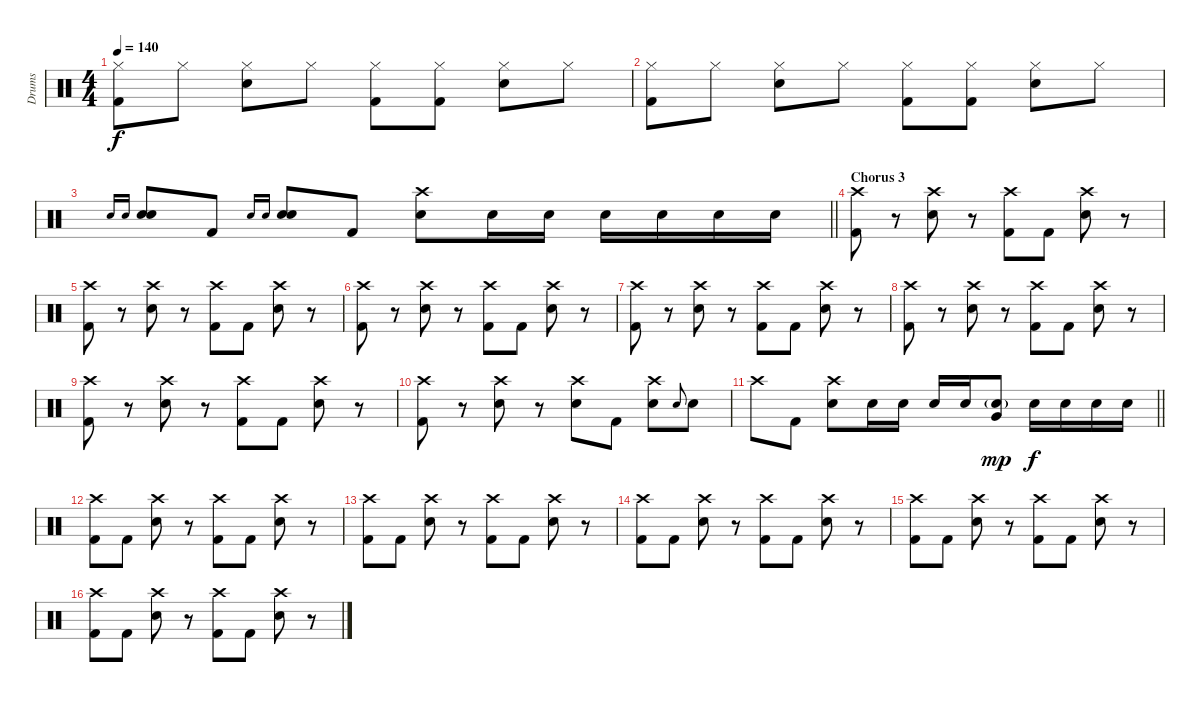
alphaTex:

\track ("Drums" "Drums") {instrument percussion}
\staff {score}
\articulation defaults
\ts (4 4)
\tempo 140
\clef neutral
\ks c
("Hi-Hat (closed)" "Kick (hit) 2").8{dy f} "Hi-Hat (closed)".8 ("Hi-Hat (closed)" "Electric Snare (hit)").8 "Hi-Hat (closed)".8 ("Hi-Hat (closed)" "Kick (hit) 2").8 ("Hi-Hat (closed)" "Kick (hit) 2").8 ("Hi-Hat (closed)" "Electric Snare (hit)").8 "Hi-Hat (closed)".8 |
("Hi-Hat (closed)" "Kick (hit) 2").8 "Hi-Hat (closed)".8 ("Hi-Hat (closed)" "Electric Snare (hit)").8 "Hi-Hat (closed)".8 ("Hi-Hat (closed)" "Kick (hit) 2").8 ("Hi-Hat (closed)" "Kick (hit) 2").8 ("Hi-Hat (closed)" "Electric Snare (hit)").8 "Hi-Hat (closed)".8 |
\barLineRight lightlight "Electric Snare (hit)".16{gr onbeat} "Electric Snare (hit)".16{gr onbeat}
("Electric Snare (hit)" "Electric Snare (hit)").8 "Kick (hit) 2".8 "Electric Snare (hit)".16{gr onbeat} "Electric Snare (hit)".16{gr onbeat} ("Electric Snare (hit)" "Electric Snare (hit)").8 "Kick (hit) 2".8 ("Crash high (hit)" "Electric Snare (hit)").8 "Electric Snare (hit)".16 "Electric Snare (hit)".16 "Electric Snare (hit)".16 "Electric Snare (hit)".16 "Electric Snare (hit)".16 "Electric Snare (hit)".16 |
\section ("" "Chorus 3")
("Crash high (hit)" "Kick (hit) 2").8 r.8 ("Crash high (hit)" "Electric Snare (hit)").8 r.8 ("Crash high (hit)" "Kick (hit) 2").8 "Kick (hit) 2".8 ("Crash high (hit)" "Electric Snare (hit)").8 r.8 |
("Crash high (hit)" "Kick (hit) 2").8 r.8 ("Crash high (hit)" "Electric Snare (hit)").8 r.8 ("Crash high (hit)" "Kick (hit) 2").8 "Kick (hit) 2".8 ("Crash high (hit)" "Electric Snare (hit)").8 r.8 |
("Crash high (hit)" "Kick (hit) 2").8 r.8 ("Crash high (hit)" "Electric Snare (hit)").8 r.8 ("Crash high (hit)" "Kick (hit) 2").8 "Kick (hit) 2".8 ("Crash high (hit)" "Electric Snare (hit)").8 r.8 |
("Crash high (hit)" "Kick (hit) 2").8 r.8 ("Crash high (hit)" "Electric Snare (hit)").8 r.8 ("Crash high (hit)" "Kick (hit) 2").8 "Kick (hit) 2".8 ("Crash high (hit)" "Electric Snare (hit)").8 r.8 |
("Crash high (hit)" "Kick (hit) 2").8 r.8 ("Crash high (hit)" "Electric Snare (hit)").8 r.8 ("Crash high (hit)" "Kick (hit) 2").8 "Kick (hit) 2".8 ("Crash high (hit)" "Electric Snare (hit)").8 r.8 |
("Crash high (hit)" "Kick (hit) 2").8 r.8 ("Crash high (hit)" "Electric Snare (hit)").8 r.8 ("Crash high (hit)" "Kick (hit) 2").8 "Kick (hit) 2".8 ("Crash high (hit)" "Electric Snare (hit)").8 r.8 |
("Crash high (hit)" "Kick (hit) 2").8 r.8 ("Crash high (hit)" "Electric Snare (hit)").8 r.8 ("Crash high (hit)" "Electric Snare (hit)").8 "Kick (hit) 2".8 ("Crash high (hit)" "Electric Snare (hit)").8 "Electric Snare (hit)".8{gr onbeat} "Electric Snare (hit)".8 |
\barLineRight lightlight "Crash high (hit)".8 "Kick (hit) 2".8
("Crash high (hit)" "Electric Snare (hit)").8 "Electric Snare (hit)".16 "Electric Snare (hit)".16 "Electric Snare (hit)".16 "Electric Snare (hit)".16 ("Electric Snare (hit)"{g} "Very Low Tom (hit)").8{dy mp} "Electric Snare (hit)".16{dy f} "Electric Snare (hit)".16 "Electric Snare (hit)".16 "Electric Snare (hit)".16 |
("Crash high (hit)" "Kick (hit) 2").8 "Kick (hit) 2".8 ("Crash high (hit)" "Electric Snare (hit)").8 r.8 ("Crash high (hit)" "Kick (hit) 2").8 "Kick (hit) 2".8 ("Crash high (hit)" "Electric Snare (hit)").8 r.8 |
("Crash high (hit)" "Kick (hit) 2").8 "Kick (hit) 2".8 ("Crash high (hit)" "Electric Snare (hit)").8 r.8 ("Crash high (hit)" "Kick (hit) 2").8 "Kick (hit) 2".8 ("Crash high (hit)" "Electric Snare (hit)").8 r.8 |
("Crash high (hit)" "Kick (hit) 2").8 "Kick (hit) 2".8 ("Crash high (hit)" "Electric Snare (hit)").8 r.8 ("Crash high (hit)" "Kick (hit) 2").8 "Kick (hit) 2".8 ("Crash high (hit)" "Electric Snare (hit)").8 r.8 |
("Crash high (hit)" "Kick (hit) 2").8 "Kick (hit) 2".8 ("Crash high (hit)" "Electric Snare (hit)").8 r.8 ("Crash high (hit)" "Kick (hit) 2").8 "Kick (hit) 2".8 ("Crash high (hit)" "Electric Snare (hit)").8 r.8 |
("Crash high (hit)" "Kick (hit) 2").8 "Kick (hit) 2".8 ("Crash high (hit)" "Electric Snare (hit)").8 r.8 ("Crash high (hit)" "Kick (hit) 2").8 "Kick (hit) 2".8 ("Crash high (hit)" "Electric Snare (hit)").8 r.8
